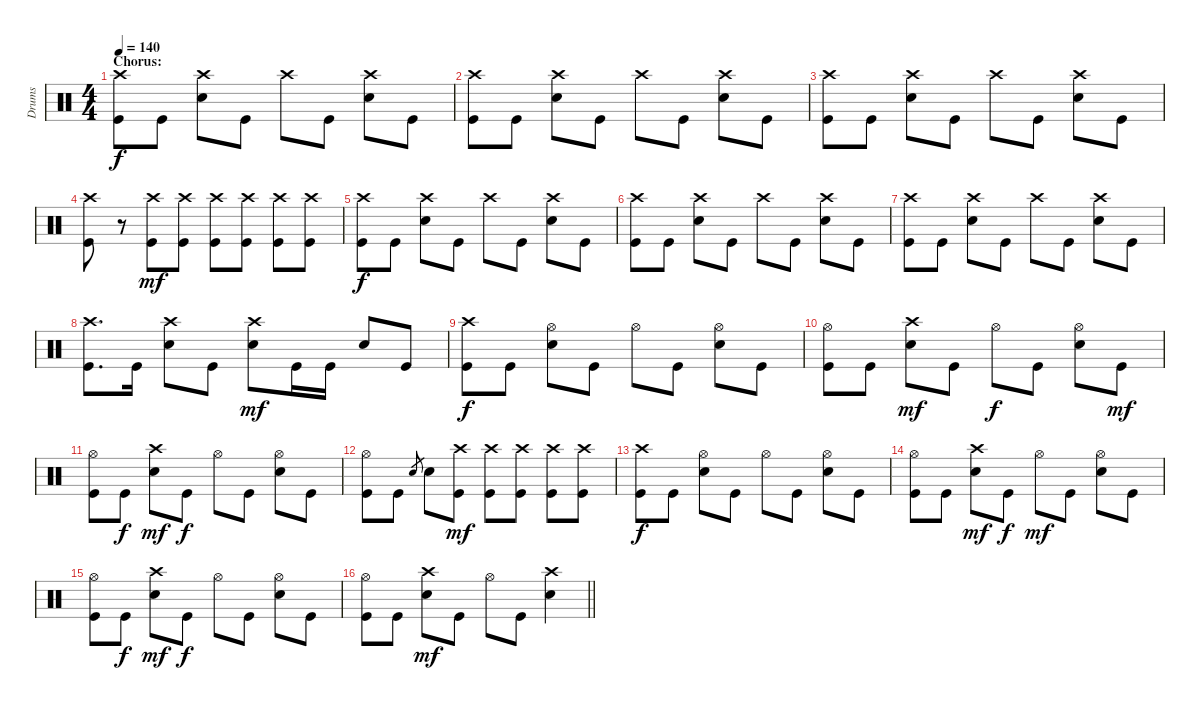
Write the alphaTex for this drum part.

\track ("Drums" "Drums") {instrument percussion}
\staff {score}
\articulation defaults
\ts (4 4)
\section ("" "Chorus:")
\tempo 140
\clef neutral
\ks c
("Kick (hit)" "Crash high (hit)").8{dy f} "Kick (hit)".8 ("Crash high (hit)" "Snare (hit) 2").8 "Kick (hit)".8 "Crash high (hit)".8 "Kick (hit)".8 ("Snare (hit) 2" "Crash high (hit)").8 "Kick (hit)".8 |
("Crash high (hit)" "Kick (hit)").8 "Kick (hit)".8 ("Snare (hit) 2" "Crash high (hit)").8 "Kick (hit)".8 "Crash high (hit)".8 "Kick (hit)".8 ("Snare (hit) 2" "Crash high (hit)").8 "Kick (hit)".8 |
("Crash high (hit)" "Kick (hit)").8 "Kick (hit)".8 ("Crash high (hit)" "Snare (hit) 2").8 "Kick (hit)".8 "Crash high (hit)".8 "Kick (hit)".8 ("Crash high (hit)" "Snare (hit) 2").8 "Kick (hit)".8 |
("Crash high (hit)" "Kick (hit)").8 r.8 ("Kick (hit)" "Crash high (hit)").8{dy mf} ("Kick (hit)" "Crash high (hit)").8 ("Kick (hit)" "Crash high (hit)").8 ("Kick (hit)" "Crash high (hit)").8 ("Kick (hit)" "Crash high (hit)").8 ("Kick (hit)" "Crash high (hit)").8 |
("Kick (hit)" "Crash high (hit)").8{dy f} "Kick (hit)".8 ("Crash high (hit)" "Snare (hit) 2").8 "Kick (hit)".8 "Crash high (hit)".8 "Kick (hit)".8 ("Snare (hit) 2" "Crash high (hit)").8 "Kick (hit)".8 |
("Crash high (hit)" "Kick (hit)").8 "Kick (hit)".8 ("Snare (hit) 2" "Crash high (hit)").8 "Kick (hit)".8 "Crash high (hit)".8 "Kick (hit)".8 ("Snare (hit) 2" "Crash high (hit)").8 "Kick (hit)".8 |
("Crash high (hit)" "Kick (hit)").8 "Kick (hit)".8 ("Crash high (hit)" "Snare (hit) 2").8 "Kick (hit)".8 "Crash high (hit)".8 "Kick (hit)".8 ("Crash high (hit)" "Snare (hit) 2").8 "Kick (hit)".8 |
("Kick (hit)" "Crash high (hit)").8{d} "Kick (hit)".16 ("Crash high (hit)" "Snare (hit) 2").8 "Kick (hit)".8 ("Crash high (hit)" "Snare (hit) 2").8{dy mf} "Kick (hit)".16 "Kick (hit)".16 "Snare (hit) 2".8 "Kick (hit)".8 |
("Kick (hit)" "Crash high (hit)").8{dy f} "Kick (hit)".8 ("Snare (hit) 2" "Hi-Hat (open)").8 "Kick (hit)".8 "Hi-Hat (open)".8 "Kick (hit)".8 ("Snare (hit) 2" "Hi-Hat (open)").8 "Kick (hit)".8 |
("Kick (hit)" "Hi-Hat (open)").8 "Kick (hit)".8 ("Snare (hit) 2" "Crash high (hit)").8{dy mf} "Kick (hit)".8 "Hi-Hat (open)".8{dy f} "Kick (hit)".8 ("Snare (hit) 2" "Hi-Hat (open)").8 "Kick (hit)".8{dy mf} |
("Kick (hit)" "Hi-Hat (open)").8 "Kick (hit)".8{dy f} ("Snare (hit) 2" "Crash high (hit)").8{dy mf} "Kick (hit)".8{dy f} "Hi-Hat (open)".8 "Kick (hit)".8 ("Snare (hit) 2" "Hi-Hat (open)").8 "Kick (hit)".8 |
("Kick (hit)" "Hi-Hat (open)").8 "Kick (hit)".8 "Snare (hit) 2".8{gr} "Snare (hit) 2".8 ("Kick (hit)" "Crash high (hit)").8{dy mf} ("Kick (hit)" "Crash high (hit)").8 ("Kick (hit)" "Crash high (hit)").8 ("Crash high (hit)" "Kick (hit)").8 ("Crash high (hit)" "Kick (hit)").8 |
("Kick (hit)" "Crash high (hit)").8{dy f} "Kick (hit)".8 ("Snare (hit) 2" "Hi-Hat (open)").8 "Kick (hit)".8 "Hi-Hat (open)".8 "Kick (hit)".8 ("Snare (hit) 2" "Hi-Hat (open)").8 "Kick (hit)".8 |
("Kick (hit)" "Hi-Hat (open)").8 "Kick (hit)".8 ("Snare (hit) 2" "Crash high (hit)").8{dy mf} "Kick (hit)".8{dy f} "Hi-Hat (open)".8{dy mf} "Kick (hit)".8 ("Snare (hit) 2" "Hi-Hat (open)").8 "Kick (hit)".8 |
("Kick (hit)" "Hi-Hat (open)").8 "Kick (hit)".8{dy f} ("Snare (hit) 2" "Crash high (hit)").8{dy mf} "Kick (hit)".8{dy f} "Hi-Hat (open)".8 "Kick (hit)".8 ("Snare (hit) 2" "Hi-Hat (open)").8 "Kick (hit)".8 |
\barLineRight lightlight
("Kick (hit)" "Hi-Hat (open)").8 "Kick (hit)".8 ("Snare (hit) 2" "Crash high (hit)").8{dy mf} "Kick (hit)".8 "Hi-Hat (open)".8 "Kick (hit)".8 ("Snare (hit) 2" "Crash high (hit)").4
